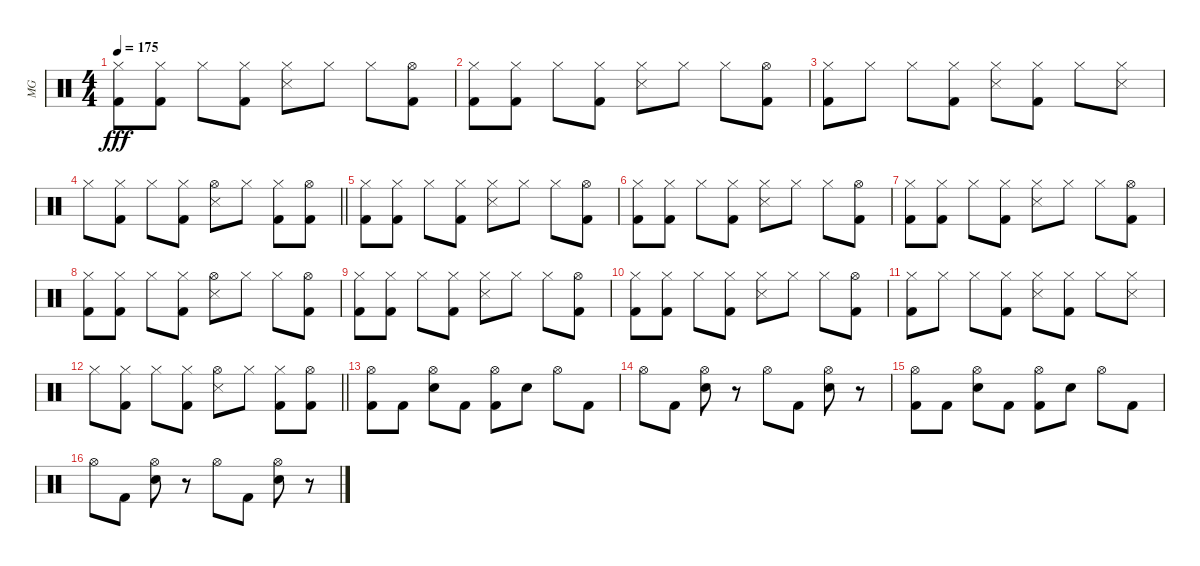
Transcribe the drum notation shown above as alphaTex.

\track ("MG" "MG") {instrument percussion}
\staff {score}
\articulation defaults
\ts (4 4)
\tempo 175
\clef neutral
\ks c
("Hi-Hat (closed)" "Kick (hit) 2").8{dy fff} ("Hi-Hat (closed)" "Kick (hit) 2").8 "Hi-Hat (closed)".8 ("Hi-Hat (closed)" "Kick (hit) 2").8 ("Hi-Hat (closed)" "Snare (side stick) 3").8 "Hi-Hat (closed)".8 "Hi-Hat (closed)".8 ("Hi-Hat (open)" "Kick (hit) 2").8 |
("Hi-Hat (closed)" "Kick (hit) 2").8 ("Hi-Hat (closed)" "Kick (hit) 2").8 "Hi-Hat (closed)".8 ("Hi-Hat (closed)" "Kick (hit) 2").8 ("Hi-Hat (closed)" "Snare (side stick) 3").8 "Hi-Hat (closed)".8 "Hi-Hat (closed)".8 ("Hi-Hat (open)" "Kick (hit) 2").8 |
("Hi-Hat (closed)" "Kick (hit) 2").8 "Hi-Hat (closed)".8 "Hi-Hat (closed)".8 ("Hi-Hat (closed)" "Kick (hit) 2").8 ("Hi-Hat (closed)" "Snare (side stick) 3").8 ("Hi-Hat (closed)" "Kick (hit) 2").8 "Hi-Hat (closed)".8 ("Hi-Hat (closed)" "Snare (side stick) 3").8 |
\barLineRight lightlight "Hi-Hat (closed)".8
("Hi-Hat (closed)" "Kick (hit) 2").8 "Hi-Hat (closed)".8 ("Hi-Hat (closed)" "Kick (hit) 2").8 ("Hi-Hat (open)" "Snare (side stick) 3").8 "Hi-Hat (closed)".8 ("Hi-Hat (closed)" "Kick (hit) 2").8 ("Hi-Hat (open)" "Kick (hit) 2").8 |
\section ("" "")
("Hi-Hat (closed)" "Kick (hit) 2").8 ("Hi-Hat (closed)" "Kick (hit) 2").8 "Hi-Hat (closed)".8 ("Hi-Hat (closed)" "Kick (hit) 2").8 ("Hi-Hat (closed)" "Snare (side stick) 3").8 "Hi-Hat (closed)".8 "Hi-Hat (closed)".8 ("Hi-Hat (open)" "Kick (hit) 2").8 |
("Hi-Hat (closed)" "Kick (hit) 2").8 ("Hi-Hat (closed)" "Kick (hit) 2").8 "Hi-Hat (closed)".8 ("Hi-Hat (closed)" "Kick (hit) 2").8 ("Hi-Hat (closed)" "Snare (side stick) 3").8 "Hi-Hat (closed)".8 "Hi-Hat (closed)".8 ("Hi-Hat (open)" "Kick (hit) 2").8 |
("Hi-Hat (closed)" "Kick (hit) 2").8 ("Hi-Hat (closed)" "Kick (hit) 2").8 "Hi-Hat (closed)".8 ("Hi-Hat (closed)" "Kick (hit) 2").8 ("Hi-Hat (closed)" "Snare (side stick) 3").8 "Hi-Hat (closed)".8 "Hi-Hat (closed)".8 ("Hi-Hat (open)" "Kick (hit) 2").8 |
("Hi-Hat (closed)" "Kick (hit) 2").8 ("Hi-Hat (closed)" "Kick (hit) 2").8 "Hi-Hat (closed)".8 ("Hi-Hat (closed)" "Kick (hit) 2").8 ("Hi-Hat (open)" "Snare (side stick) 3").8 "Hi-Hat (closed)".8 "Hi-Hat (closed)".8 ("Hi-Hat (open)" "Kick (hit) 2").8 |
("Hi-Hat (closed)" "Kick (hit) 2").8 ("Hi-Hat (closed)" "Kick (hit) 2").8 "Hi-Hat (closed)".8 ("Hi-Hat (closed)" "Kick (hit) 2").8 ("Hi-Hat (closed)" "Snare (side stick) 3").8 "Hi-Hat (closed)".8 "Hi-Hat (closed)".8 ("Hi-Hat (open)" "Kick (hit) 2").8 |
("Hi-Hat (closed)" "Kick (hit) 2").8 ("Hi-Hat (closed)" "Kick (hit) 2").8 "Hi-Hat (closed)".8 ("Hi-Hat (closed)" "Kick (hit) 2").8 ("Hi-Hat (closed)" "Snare (side stick) 3").8 "Hi-Hat (closed)".8 "Hi-Hat (closed)".8 ("Hi-Hat (open)" "Kick (hit) 2").8 |
("Hi-Hat (closed)" "Kick (hit) 2").8 "Hi-Hat (closed)".8 "Hi-Hat (closed)".8 ("Hi-Hat (closed)" "Kick (hit) 2").8 ("Hi-Hat (closed)" "Snare (side stick) 3").8 ("Hi-Hat (closed)" "Kick (hit) 2").8 "Hi-Hat (closed)".8 ("Hi-Hat (closed)" "Snare (side stick) 3").8 |
\barLineRight lightlight "Hi-Hat (closed)".8
("Hi-Hat (closed)" "Kick (hit) 2").8 "Hi-Hat (closed)".8 ("Hi-Hat (closed)" "Kick (hit) 2").8 ("Hi-Hat (open)" "Snare (side stick) 3").8 "Hi-Hat (closed)".8 ("Hi-Hat (closed)" "Kick (hit) 2").8 ("Hi-Hat (open)" "Kick (hit) 2").8 |
\section ("" "")
("Hi-Hat (open)" "Kick (hit) 2").8 "Kick (hit) 2".8 ("Hi-Hat (open)" "Electric Snare (hit)").8 "Kick (hit) 2".8 ("Hi-Hat (open)" "Kick (hit) 2").8 "Electric Snare (hit)".8 "Hi-Hat (open)".8 "Kick (hit) 2".8 |
"Hi-Hat (open)".8 "Kick (hit) 2".8 ("Hi-Hat (open)" "Electric Snare (hit)").8 r.8 "Hi-Hat (open)".8 "Kick (hit) 2".8 ("Hi-Hat (open)" "Electric Snare (hit)").8 r.8 |
("Hi-Hat (open)" "Kick (hit) 2").8 "Kick (hit) 2".8 ("Hi-Hat (open)" "Electric Snare (hit)").8 "Kick (hit) 2".8 ("Hi-Hat (open)" "Kick (hit) 2").8 "Electric Snare (hit)".8 "Hi-Hat (open)".8 "Kick (hit) 2".8 |
"Hi-Hat (open)".8 "Kick (hit) 2".8 ("Hi-Hat (open)" "Electric Snare (hit)").8 r.8 "Hi-Hat (open)".8 "Kick (hit) 2".8 ("Hi-Hat (open)" "Electric Snare (hit)").8 r.8
